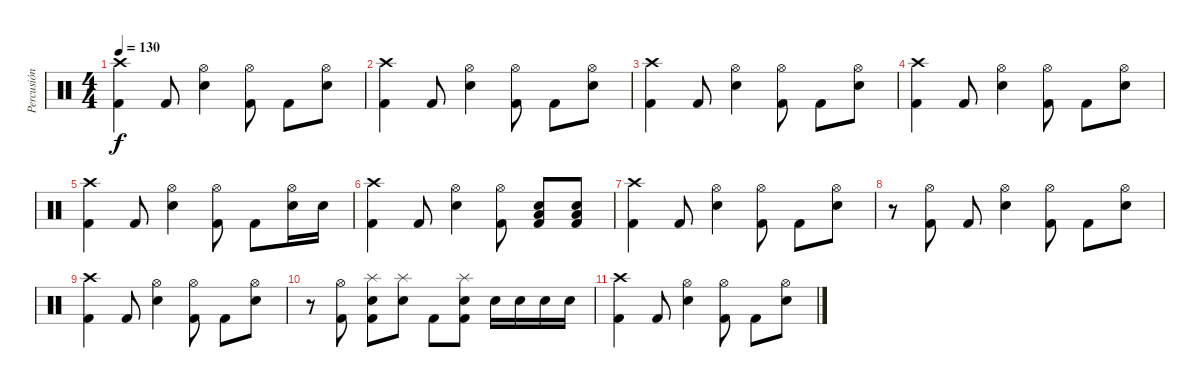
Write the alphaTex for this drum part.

\track ("Percusión" "Percusión") {instrument percussion}
\staff {score}
\articulation defaults
\ts (4 4)
\tempo 130
\clef neutral
\ks c
("Crash high (hit)" "Kick (hit) 2").4{dy f} "Kick (hit) 2".8 ("Snare (hit) 2" "Hi-Hat (open)").4 ("Hi-Hat (open)" "Kick (hit) 2").8 "Kick (hit) 2".8 ("Snare (hit) 2" "Hi-Hat (open)").8 |
("Crash high (hit)" "Kick (hit) 2").4 "Kick (hit) 2".8 ("Snare (hit) 2" "Hi-Hat (open)").4 ("Hi-Hat (open)" "Kick (hit) 2").8 "Kick (hit) 2".8 ("Snare (hit) 2" "Hi-Hat (open)").8 |
("Crash high (hit)" "Kick (hit) 2").4 "Kick (hit) 2".8 ("Snare (hit) 2" "Hi-Hat (open)").4 ("Hi-Hat (open)" "Kick (hit) 2").8 "Kick (hit) 2".8 ("Snare (hit) 2" "Hi-Hat (open)").8 |
("Crash high (hit)" "Kick (hit) 2").4 "Kick (hit) 2".8 ("Snare (hit) 2" "Hi-Hat (open)").4 ("Hi-Hat (open)" "Kick (hit) 2").8 "Kick (hit) 2".8 ("Snare (hit) 2" "Hi-Hat (open)").8 |
("Crash high (hit)" "Kick (hit) 2").4 "Kick (hit) 2".8 ("Snare (hit) 2" "Hi-Hat (open)").4 ("Hi-Hat (open)" "Kick (hit) 2").8 "Kick (hit) 2".8 ("Snare (hit) 2" "Hi-Hat (open)").16 "Snare (hit) 2".16 |
("Crash high (hit)" "Kick (hit) 2").4 "Kick (hit) 2".8 ("Snare (hit) 2" "Hi-Hat (open)").4 ("Hi-Hat (open)" "Kick (hit) 2").8 ("Snare (hit) 2" "Low Floor Tom (hit)" "Kick (hit) 2").8 ("Snare (hit) 2" "Low Floor Tom (hit)" "Kick (hit) 2").8 |
("Crash high (hit)" "Kick (hit) 2").4 "Kick (hit) 2".8 ("Snare (hit) 2" "Hi-Hat (open)").4 ("Hi-Hat (open)" "Kick (hit) 2").8 "Kick (hit) 2".8 ("Snare (hit) 2" "Hi-Hat (open)").8 |
r.8 ("Hi-Hat (open)" "Kick (hit) 2").8 "Kick (hit) 2".8 ("Snare (hit) 2" "Hi-Hat (open)").4 ("Hi-Hat (open)" "Kick (hit) 2").8 "Kick (hit) 2".8 ("Snare (hit) 2" "Hi-Hat (open)").8 |
("Crash high (hit)" "Kick (hit) 2").4 "Kick (hit) 2".8 ("Snare (hit) 2" "Hi-Hat (open)").4 ("Hi-Hat (open)" "Kick (hit) 2").8 "Kick (hit) 2".8 ("Snare (hit) 2" "Hi-Hat (open)").8 |
r.8 ("Hi-Hat (open)" "Kick (hit) 2").8 ("Snare (hit) 2" "Kick (hit) 2" "Splash (hit)").8 ("Snare (hit) 2" "Splash (hit)").8 "Kick (hit) 2".8 ("Snare (hit) 2" "Kick (hit) 2" "Splash (hit)").8 "Snare (hit) 2".16 "Snare (hit) 2".16 "Snare (hit) 2".16 "Snare (hit) 2".16 |
("Crash high (hit)" "Kick (hit) 2").4 "Kick (hit) 2".8 ("Snare (hit) 2" "Hi-Hat (open)").4 ("Hi-Hat (open)" "Kick (hit) 2").8 "Kick (hit) 2".8 ("Snare (hit) 2" "Hi-Hat (open)").8
